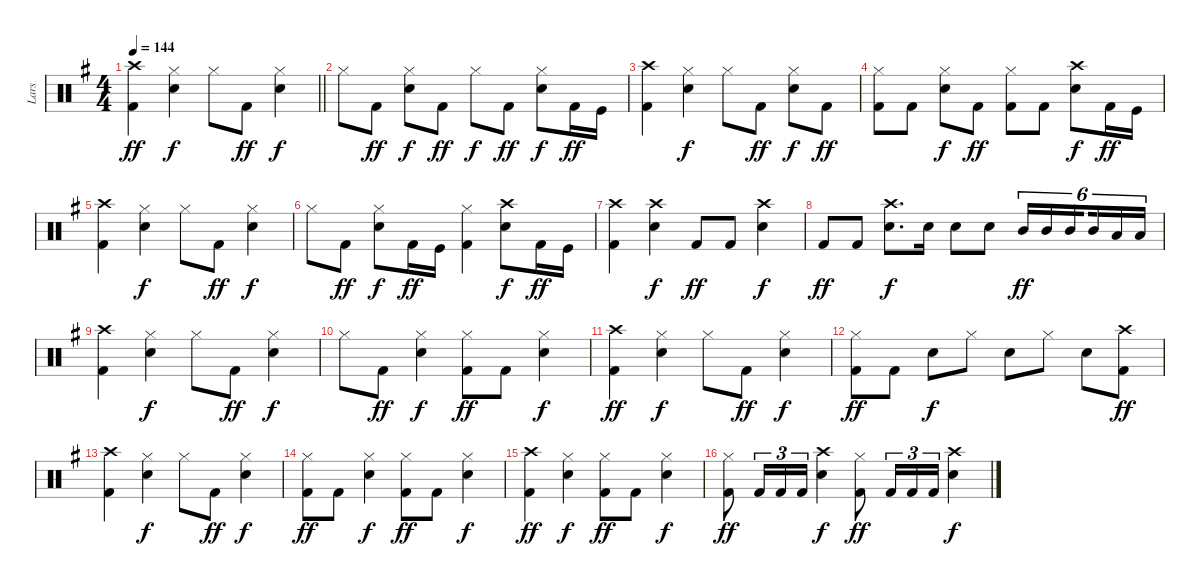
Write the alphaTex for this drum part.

\track ("Lars" "Lars") {instrument percussion}
\staff {score}
\articulation defaults
\ts (4 4)
\tempo 144
\clef neutral
\barLineRight lightlight
\ks g
("Crash high (hit)" "Kick (hit) 2").4{dy ff} ("Hi-Hat (closed)" "Snare (hit) 2").4{dy f} "Hi-Hat (closed)".8 "Kick (hit) 2".8{dy ff} ("Hi-Hat (closed)" "Snare (hit) 2").4{dy f} |
"Hi-Hat (closed)".8 "Kick (hit) 2".8{dy ff} ("Hi-Hat (closed)" "Snare (hit) 2").8{dy f} "Kick (hit) 2".8{dy ff} "Hi-Hat (closed)".8{dy f} "Kick (hit) 2".8{dy ff} ("Hi-Hat (closed)" "Snare (hit) 2").8{dy f} "Kick (hit) 2".16{dy ff} "Kick (hit)".16 |
("Crash high (hit)" "Kick (hit) 2").4 ("Hi-Hat (closed)" "Snare (hit) 2").4{dy f} "Hi-Hat (closed)".8 "Kick (hit) 2".8{dy ff} ("Hi-Hat (closed)" "Snare (hit) 2").8{dy f} "Kick (hit) 2".8{dy ff} |
("Hi-Hat (closed)" "Kick (hit) 2").8 "Kick (hit) 2".8 ("Hi-Hat (closed)" "Snare (hit) 2").8{dy f} "Kick (hit) 2".8{dy ff} ("Hi-Hat (closed)" "Kick (hit) 2").8 "Kick (hit) 2".8 ("Crash high (hit)" "Snare (hit) 2").8{dy f} "Kick (hit) 2".16{dy ff} "Kick (hit)".16 |
("Crash high (hit)" "Kick (hit) 2").4 ("Hi-Hat (closed)" "Snare (hit) 2").4{dy f} "Hi-Hat (closed)".8 "Kick (hit) 2".8{dy ff} ("Hi-Hat (closed)" "Snare (hit) 2").4{dy f} |
"Hi-Hat (closed)".8 "Kick (hit) 2".8{dy ff} ("Hi-Hat (closed)" "Snare (hit) 2").8{dy f} "Kick (hit) 2".16{dy ff} "Kick (hit)".16 ("Hi-Hat (closed)" "Kick (hit) 2").4 ("Crash high (hit)" "Snare (hit) 2").8{dy f} "Kick (hit) 2".16{dy ff} "Kick (hit)".16 |
("Crash high (hit)" "Kick (hit) 2").4 ("Crash high (hit)" "Snare (hit) 2").4{dy f} "Kick (hit) 2".8{dy ff} "Kick (hit) 2".8 ("Crash high (hit)" "Snare (hit) 2").4{dy f} |
"Kick (hit) 2".8{dy ff} "Kick (hit) 2".8 ("Crash high (hit)" "Snare (hit) 2").8{d dy f} "Snare (hit) 2".16 "Snare (hit) 2".8 "Snare (hit) 2".8 "Mid Tom (hit)".16{tu (6 4) dy ff} "Mid Tom (hit)".16{tu (6 4)} "Mid Tom (hit)".16{tu (6 4) beam splitsecondary} "Mid Tom (hit)".16{tu (6 4)} "Low Tom (hit)".16{tu (6 4)} "Low Tom (hit)".16{tu (6 4)} |
("Crash high (hit)" "Kick (hit) 2").4 ("Hi-Hat (closed)" "Snare (hit) 2").4{dy f} "Hi-Hat (closed)".8 "Kick (hit) 2".8{dy ff} ("Hi-Hat (closed)" "Snare (hit) 2").4{dy f} |
"Hi-Hat (closed)".8 "Kick (hit) 2".8{dy ff} ("Hi-Hat (closed)" "Snare (hit) 2").4{dy f} ("Hi-Hat (closed)" "Kick (hit) 2").8{dy ff} "Kick (hit) 2".8 ("Hi-Hat (closed)" "Snare (hit) 2").4{dy f} |
("Crash high (hit)" "Kick (hit) 2").4{dy ff} ("Hi-Hat (closed)" "Snare (hit) 2").4{dy f} "Hi-Hat (closed)".8 "Kick (hit) 2".8{dy ff} ("Hi-Hat (closed)" "Snare (hit) 2").4{dy f} |
("Hi-Hat (closed)" "Kick (hit) 2").8{dy ff} "Kick (hit) 2".8 "Snare (hit) 2".8{dy f} "Hi-Hat (closed)".8 "Snare (hit) 2".8 "Hi-Hat (closed)".8 "Snare (hit) 2".8 ("Crash high (hit)" "Kick (hit) 2").8{dy ff} |
("Crash high (hit)" "Kick (hit) 2").4 ("Hi-Hat (closed)" "Snare (hit) 2").4{dy f} "Hi-Hat (closed)".8 "Kick (hit) 2".8{dy ff} ("Hi-Hat (closed)" "Snare (hit) 2").4{dy f} |
("Hi-Hat (closed)" "Kick (hit) 2").8{dy ff} "Kick (hit) 2".8 ("Hi-Hat (closed)" "Snare (hit) 2").4{dy f} ("Hi-Hat (closed)" "Kick (hit) 2").8{dy ff} "Kick (hit) 2".8 ("Hi-Hat (closed)" "Snare (hit) 2").4{dy f} |
("Crash high (hit)" "Kick (hit) 2").4{dy ff} ("Hi-Hat (closed)" "Snare (hit) 2").4{dy f} ("Hi-Hat (closed)" "Kick (hit) 2").8{dy ff} "Kick (hit) 2".8 ("Hi-Hat (closed)" "Snare (hit) 2").4{dy f} |
("Hi-Hat (closed)" "Kick (hit) 2").8{dy ff} "Kick (hit) 2".16{tu (3 2)} "Kick (hit) 2".16{tu (3 2)} "Kick (hit) 2".16{tu (3 2)} ("Crash high (hit)" "Snare (hit) 2").4{dy f} ("Hi-Hat (closed)" "Kick (hit) 2").8{dy ff} "Kick (hit) 2".16{tu (3 2)} "Kick (hit) 2".16{tu (3 2)} "Kick (hit) 2".16{tu (3 2)} ("Crash high (hit)" "Snare (hit) 2").4{dy f}
